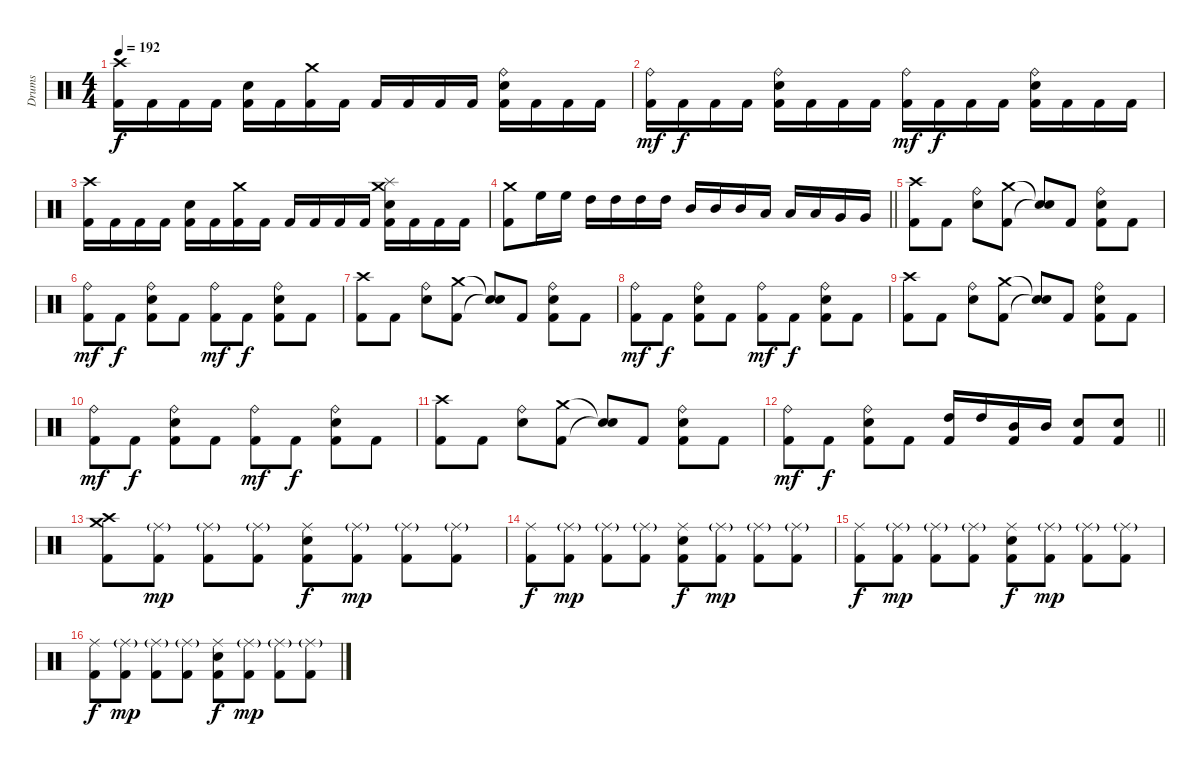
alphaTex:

\track ("Drums" "Drums") {instrument percussion}
\staff {score}
\articulation defaults
\ts (4 4)
\tempo 192
\clef neutral
\ks c
("Crash high (hit)" "Kick (hit) 2").16{dy f} "Kick (hit) 2".16 "Kick (hit) 2".16 "Kick (hit) 2".16 ("Electric Snare (hit)" "Kick (hit) 2").16 "Kick (hit) 2".16 ("Crash medium (hit)" "Kick (hit) 2").16 "Kick (hit) 2".16 "Kick (hit) 2".16 "Kick (hit) 2".16 "Kick (hit) 2".16 "Kick (hit) 2".16 ("Ride (bell)" "Electric Snare (hit)" "Kick (hit) 2").16 "Kick (hit) 2".16 "Kick (hit) 2".16 "Kick (hit) 2".16 |
("Ride (bell)" "Kick (hit) 2").16{dy mf} "Kick (hit) 2".16{dy f} "Kick (hit) 2".16 "Kick (hit) 2".16 ("Ride (bell)" "Electric Snare (hit)" "Kick (hit) 2").16 "Kick (hit) 2".16 "Kick (hit) 2".16 "Kick (hit) 2".16 ("Ride (bell)" "Kick (hit) 2").16{dy mf} "Kick (hit) 2".16{dy f} "Kick (hit) 2".16 "Kick (hit) 2".16 ("Ride (bell)" "Electric Snare (hit)" "Kick (hit) 2").16 "Kick (hit) 2".16 "Kick (hit) 2".16 "Kick (hit) 2".16 |
("Crash high (hit)" "Kick (hit) 2").16 "Kick (hit) 2".16 "Kick (hit) 2".16 "Kick (hit) 2".16 ("Electric Snare (hit)" "Kick (hit) 2").16 "Kick (hit) 2".16 ("Crash medium (hit)" "Kick (hit) 2").16 "Kick (hit) 2".16 "Kick (hit) 2".16 "Kick (hit) 2".16 "Kick (hit) 2".16 "Kick (hit) 2".16 ("Crash medium (hit)" "Splash (hit)" "Electric Snare (hit)" "Kick (hit) 2").16 "Kick (hit) 2".16 "Kick (hit) 2".16 "Kick (hit) 2".16 |
\barLineRight lightlight
("Crash medium (hit)" "Kick (hit) 2").8 "High Floor Tom (hit)".16 "High Floor Tom (hit)".16 "High Tom (hit)".16 "High Tom (hit)".16 "High Tom (hit)".16 "High Tom (hit)".16 "Mid Tom (hit)".16 "Mid Tom (hit)".16 "Mid Tom (hit)".16 "Low Tom (hit)".16 "Low Tom (hit)".16 "Low Tom (hit)".16 "Very Low Tom (hit)".16 "Very Low Tom (hit)".16 |
("Crash high (hit)" "Kick (hit) 2").8 "Kick (hit) 2".8 ("Ride (bell)" "Electric Snare (hit)").8 ("Crash medium (hit)" "Kick (hit) 2").8 ("Snare (hit)"{t} "Snare (hit)"{t}).8 "Kick (hit) 2".8 ("Ride (bell)" "Electric Snare (hit)" "Kick (hit) 2").8 "Kick (hit) 2".8 |
("Ride (bell)" "Kick (hit) 2").8{dy mf} "Kick (hit) 2".8{dy f} ("Ride (bell)" "Electric Snare (hit)" "Kick (hit) 2").8 "Kick (hit) 2".8 ("Ride (bell)" "Kick (hit) 2").8{dy mf} "Kick (hit) 2".8{dy f} ("Ride (bell)" "Electric Snare (hit)" "Kick (hit) 2").8 "Kick (hit) 2".8 |
("Crash high (hit)" "Kick (hit) 2").8 "Kick (hit) 2".8 ("Ride (bell)" "Electric Snare (hit)").8 ("Crash medium (hit)" "Kick (hit) 2").8 ("Snare (hit)"{t} "Snare (hit)"{t}).8 "Kick (hit) 2".8 ("Ride (bell)" "Electric Snare (hit)" "Kick (hit) 2").8 "Kick (hit) 2".8 |
("Ride (bell)" "Kick (hit) 2").8{dy mf} "Kick (hit) 2".8{dy f} ("Ride (bell)" "Electric Snare (hit)" "Kick (hit) 2").8 "Kick (hit) 2".8 ("Ride (bell)" "Kick (hit) 2").8{dy mf} "Kick (hit) 2".8{dy f} ("Ride (bell)" "Electric Snare (hit)" "Kick (hit) 2").8 "Kick (hit) 2".8 |
("Crash high (hit)" "Kick (hit) 2").8 "Kick (hit) 2".8 ("Ride (bell)" "Electric Snare (hit)").8 ("Crash medium (hit)" "Kick (hit) 2").8 ("Snare (hit)"{t} "Snare (hit)"{t}).8 "Kick (hit) 2".8 ("Ride (bell)" "Electric Snare (hit)" "Kick (hit) 2").8 "Kick (hit) 2".8 |
("Ride (bell)" "Kick (hit) 2").8{dy mf} "Kick (hit) 2".8{dy f} ("Ride (bell)" "Electric Snare (hit)" "Kick (hit) 2").8 "Kick (hit) 2".8 ("Ride (bell)" "Kick (hit) 2").8{dy mf} "Kick (hit) 2".8{dy f} ("Ride (bell)" "Electric Snare (hit)" "Kick (hit) 2").8 "Kick (hit) 2".8 |
("Crash high (hit)" "Kick (hit) 2").8 "Kick (hit) 2".8 ("Ride (bell)" "Electric Snare (hit)").8 ("Crash medium (hit)" "Kick (hit) 2").8 ("Snare (hit)"{t} "Snare (hit)"{t}).8 "Kick (hit) 2".8 ("Ride (bell)" "Electric Snare (hit)" "Kick (hit) 2").8 "Kick (hit) 2".8 |
\barLineRight lightlight
("Ride (bell)" "Kick (hit) 2").8{dy mf} "Kick (hit) 2".8{dy f} ("Ride (bell)" "Electric Snare (hit)" "Kick (hit) 2").8 "Kick (hit) 2".8 ("High Tom (hit)" "Kick (hit) 2").16 "High Tom (hit)".16 ("Mid Tom (hit)" "Kick (hit) 2").16 "Mid Tom (hit)".16 ("Electric Snare (hit)" "Kick (hit) 2").8 ("Electric Snare (hit)" "Kick (hit) 2").8 |
("Crash high (hit)" "Crash medium (hit)" "Kick (hit) 2").8 ("Ride (middle)"{g} "Kick (hit) 2").8{dy mp} ("Ride (middle)"{g} "Kick (hit) 2").8 ("Ride (middle)"{g} "Kick (hit) 2").8 ("Ride (middle)" "Electric Snare (hit)" "Kick (hit) 2").8{dy f} ("Ride (middle)"{g} "Kick (hit) 2").8{dy mp} ("Ride (middle)"{g} "Kick (hit) 2").8 ("Ride (middle)"{g} "Kick (hit) 2").8 |
("Ride (middle)" "Kick (hit) 2").8{dy f} ("Ride (middle)"{g} "Kick (hit) 2").8{dy mp} ("Ride (middle)"{g} "Kick (hit) 2").8 ("Ride (middle)"{g} "Kick (hit) 2").8 ("Ride (middle)" "Electric Snare (hit)" "Kick (hit) 2").8{dy f} ("Ride (middle)"{g} "Kick (hit) 2").8{dy mp} ("Ride (middle)"{g} "Kick (hit) 2").8 ("Ride (middle)"{g} "Kick (hit) 2").8 |
("Ride (middle)" "Kick (hit) 2").8{dy f} ("Ride (middle)"{g} "Kick (hit) 2").8{dy mp} ("Ride (middle)"{g} "Kick (hit) 2").8 ("Ride (middle)"{g} "Kick (hit) 2").8 ("Ride (middle)" "Electric Snare (hit)" "Kick (hit) 2").8{dy f} ("Ride (middle)"{g} "Kick (hit) 2").8{dy mp} ("Ride (middle)"{g} "Kick (hit) 2").8 ("Ride (middle)"{g} "Kick (hit) 2").8 |
("Ride (middle)" "Kick (hit) 2").8{dy f} ("Ride (middle)"{g} "Kick (hit) 2").8{dy mp} ("Ride (middle)"{g} "Kick (hit) 2").8 ("Ride (middle)"{g} "Kick (hit) 2").8 ("Ride (middle)" "Electric Snare (hit)" "Kick (hit) 2").8{dy f} ("Ride (middle)"{g} "Kick (hit) 2").8{dy mp} ("Ride (middle)"{g} "Kick (hit) 2").8 ("Ride (middle)"{g} "Kick (hit) 2").8
